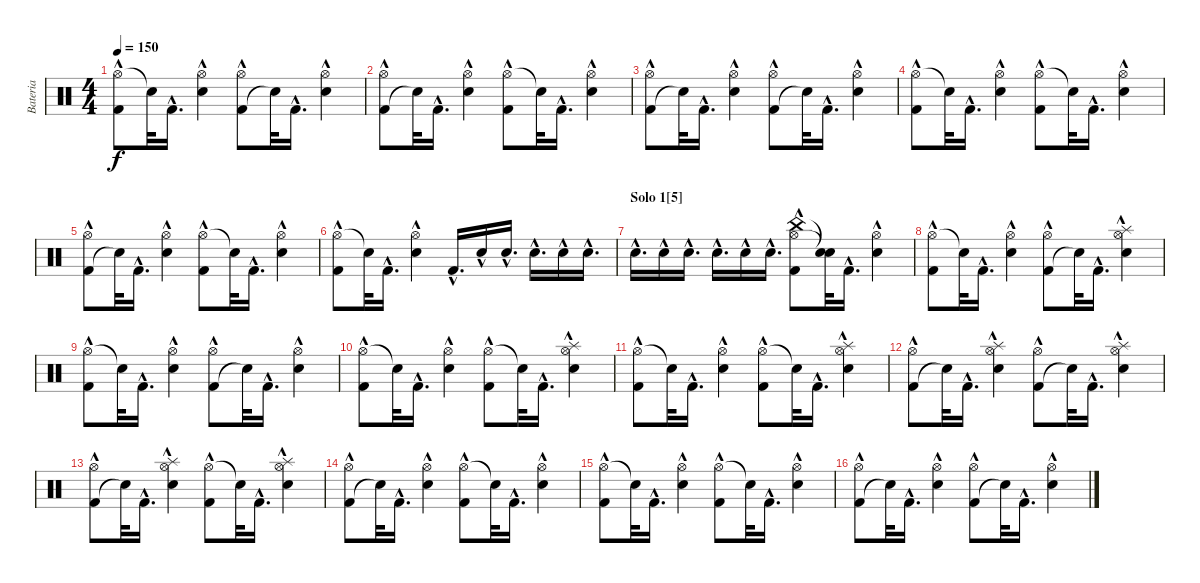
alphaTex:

\track ("Bateria" "Bateria") {instrument percussion}
\staff {score}
\articulation defaults
\ts (4 4)
\tempo 150
\clef neutral
\ks c
("Hi-Hat (open)" "Kick (hit) 2"{hac}).8{dy f} "Snare (hit)"{t}.32 "Kick (hit) 2"{hac}.16{d} ("Snare (hit) 2"{hac} "Hi-Hat (open)").4 ("Kick (hit) 2"{hac} "Hi-Hat (open)").8 "Snare (hit)"{t}.32 "Kick (hit) 2"{hac}.16{d} ("Hi-Hat (open)" "Snare (hit) 2"{hac}).4 |
("Kick (hit) 2"{hac} "Hi-Hat (open)").8 "Snare (hit)"{t}.32 "Kick (hit) 2"{hac}.16{d} ("Snare (hit) 2"{hac} "Hi-Hat (open)").4 ("Hi-Hat (open)" "Kick (hit) 2"{hac}).8 "Snare (hit)"{t}.32 "Kick (hit) 2"{hac}.16{d} ("Hi-Hat (open)" "Snare (hit) 2"{hac}).4 |
("Kick (hit) 2"{hac} "Hi-Hat (open)").8 "Snare (hit)"{t}.32 "Kick (hit) 2"{hac}.16{d} ("Hi-Hat (open)" "Snare (hit) 2"{hac}).4 ("Kick (hit) 2"{hac} "Hi-Hat (open)").8 "Snare (hit)"{t}.32 "Kick (hit) 2"{hac}.16{d} ("Snare (hit) 2"{hac} "Hi-Hat (open)").4 |
("Hi-Hat (open)" "Kick (hit) 2"{hac}).8 "Snare (hit)"{t}.32 "Kick (hit) 2"{hac}.16{d} ("Hi-Hat (open)" "Snare (hit) 2"{hac}).4 ("Hi-Hat (open)" "Kick (hit) 2"{hac}).8 "Snare (hit)"{t}.32 "Kick (hit) 2"{hac}.16{d} ("Hi-Hat (open)" "Snare (hit) 2"{hac}).4 |
("Kick (hit) 2"{hac} "Hi-Hat (open)").8 "Snare (hit)"{t}.32 "Kick (hit) 2"{hac}.16{d} ("Snare (hit) 2"{hac} "Hi-Hat (open)").4 ("Hi-Hat (open)" "Kick (hit) 2"{hac}).8 "Snare (hit)"{t}.32 "Kick (hit) 2"{hac}.16{d} ("Hi-Hat (open)" "Snare (hit) 2"{hac}).4 |
("Hi-Hat (open)" "Kick (hit) 2"{hac}).8 "Snare (hit)"{t}.32 "Kick (hit) 2"{hac}.16{d} ("Snare (hit) 2"{hac} "Hi-Hat (open)").4 "Kick (hit) 2"{hac}.16{d} "Snare (hit) 2"{hac}.16 "Snare (hit) 2"{hac}.16{d} "Snare (hit) 2"{hac}.16{d} "Snare (hit) 2"{hac}.16 "Snare (hit) 2"{hac}.16{d} |
\section ("" "Solo 1[5]")
"Snare (hit) 2"{hac}.16{d} "Snare (hit) 2"{hac}.16 "Snare (hit) 2"{hac}.16{d} "Snare (hit) 2"{hac}.16{d} "Snare (hit) 2"{hac}.16 "Snare (hit) 2"{hac}.16{d} ("Hi-Hat (open)" "China (hit)" "Kick (hit) 2"{hac}).8 ("Snare (hit)"{t} "Snare (hit)"{t}).32 "Kick (hit) 2"{hac}.16{d} ("Snare (hit) 2"{hac} "Hi-Hat (open)").4 |
("Hi-Hat (open)" "Kick (hit) 2"{hac}).8 "Snare (hit)"{t}.32 "Kick (hit) 2"{hac}.16{d} ("Snare (hit) 2"{hac} "Hi-Hat (open)").4 ("Kick (hit) 2"{hac} "Hi-Hat (open)").8 "Snare (hit)"{t}.32 "Kick (hit) 2"{hac}.16{d} ("Snare (hit) 2"{hac} "Hi-Hat (open)" "Splash (hit)").4 |
("Hi-Hat (open)" "Kick (hit) 2"{hac}).8 "Snare (hit)"{t}.32 "Kick (hit) 2"{hac}.16{d} ("Hi-Hat (open)" "Snare (hit) 2"{hac}).4 ("Kick (hit) 2"{hac} "Hi-Hat (open)").8 "Snare (hit)"{t}.32 "Kick (hit) 2"{hac}.16{d} ("Snare (hit) 2"{hac} "Hi-Hat (open)").4 |
("Hi-Hat (open)" "Kick (hit) 2"{hac}).8 "Snare (hit)"{t}.32 "Kick (hit) 2"{hac}.16{d} ("Hi-Hat (open)" "Snare (hit) 2"{hac}).4 ("Hi-Hat (open)" "Kick (hit) 2"{hac}).8 "Snare (hit)"{t}.32 "Kick (hit) 2"{hac}.16{d} ("Hi-Hat (open)" "Splash (hit)" "Snare (hit) 2"{hac}).4 |
("Hi-Hat (open)" "Kick (hit) 2"{hac}).8 "Snare (hit)"{t}.32 "Kick (hit) 2"{hac}.16{d} ("Snare (hit) 2"{hac} "Hi-Hat (open)").4 ("Hi-Hat (open)" "Kick (hit) 2"{hac}).8 "Snare (hit)"{t}.32 "Kick (hit) 2"{hac}.16{d} ("Snare (hit) 2"{hac} "Hi-Hat (open)" "Splash (hit)").4 |
("Kick (hit) 2"{hac} "Hi-Hat (open)").8 "Snare (hit)"{t}.32 "Kick (hit) 2"{hac}.16{d} ("Hi-Hat (open)" "Splash (hit)" "Snare (hit) 2"{hac}).4 ("Kick (hit) 2"{hac} "Hi-Hat (open)").8 "Snare (hit)"{t}.32 "Kick (hit) 2"{hac}.16{d} ("Snare (hit) 2"{hac} "Splash (hit)" "Hi-Hat (open)").4 |
("Kick (hit) 2"{hac} "Hi-Hat (open)").8 "Snare (hit)"{t}.32 "Kick (hit) 2"{hac}.16{d} ("Snare (hit) 2"{hac} "Hi-Hat (open)" "Splash (hit)").4 ("Hi-Hat (open)" "Kick (hit) 2"{hac}).8 "Snare (hit)"{t}.32 "Kick (hit) 2"{hac}.16{d} ("Hi-Hat (open)" "Snare (hit) 2"{hac} "Splash (hit)").4 |
("Kick (hit) 2"{hac} "Hi-Hat (open)").8 "Snare (hit)"{t}.32 "Kick (hit) 2"{hac}.16{d} ("Snare (hit) 2"{hac} "Hi-Hat (open)").4 ("Hi-Hat (open)" "Kick (hit) 2"{hac}).8 "Snare (hit)"{t}.32 "Kick (hit) 2"{hac}.16{d} ("Hi-Hat (open)" "Snare (hit) 2"{hac}).4 |
("Hi-Hat (open)" "Kick (hit) 2"{hac}).8 "Snare (hit)"{t}.32 "Kick (hit) 2"{hac}.16{d} ("Snare (hit) 2"{hac} "Hi-Hat (open)").4 ("Hi-Hat (open)" "Kick (hit) 2"{hac}).8 "Snare (hit)"{t}.32 "Kick (hit) 2"{hac}.16{d} ("Hi-Hat (open)" "Snare (hit) 2"{hac}).4 |
("Kick (hit) 2"{hac} "Hi-Hat (open)").8 "Snare (hit)"{t}.32 "Kick (hit) 2"{hac}.16{d} ("Snare (hit) 2"{hac} "Hi-Hat (open)").4 ("Kick (hit) 2"{hac} "Hi-Hat (open)").8 "Snare (hit)"{t}.32 "Kick (hit) 2"{hac}.16{d} ("Snare (hit) 2"{hac} "Hi-Hat (open)").4
